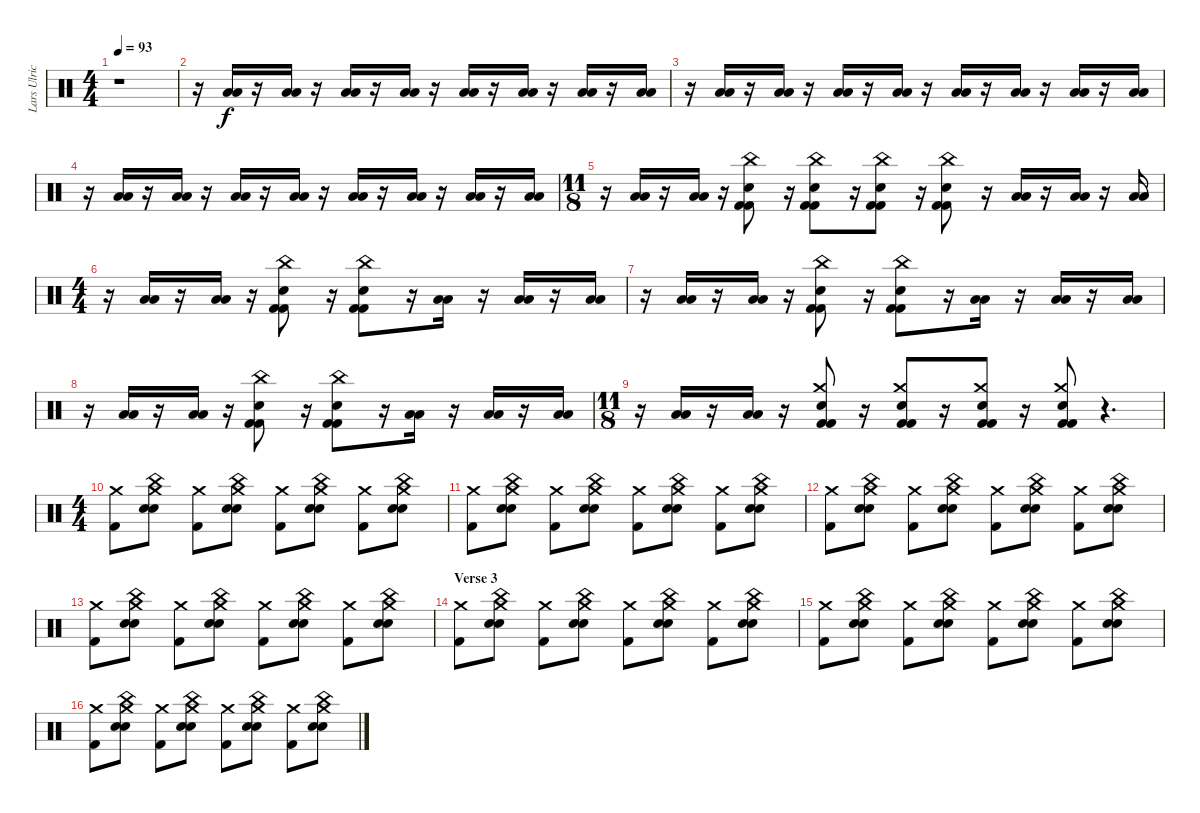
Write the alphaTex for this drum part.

\track ("Lars Ulrich" "Lars Ulric") {instrument percussion}
\staff {score}
\articulation defaults
\ts (4 4)
\tempo 93
\clef neutral
\ks c
r.1{dy f} |
r.16 ("Low Tom (hit)" "Low Floor Tom (hit)").16 r.16 ("Low Tom (hit)" "Low Floor Tom (hit)").16 r.16 ("Low Tom (hit)" "Low Floor Tom (hit)").16 r.16 ("Low Tom (hit)" "Low Floor Tom (hit)").16 r.16 ("Low Tom (hit)" "Low Floor Tom (hit)").16 r.16 ("Low Tom (hit)" "Low Floor Tom (hit)").16 r.16 ("Low Tom (hit)" "Low Floor Tom (hit)").16 r.16 ("Low Tom (hit)" "Low Floor Tom (hit)").16 |
r.16 ("Low Tom (hit)" "Low Floor Tom (hit)").16 r.16 ("Low Tom (hit)" "Low Floor Tom (hit)").16 r.16 ("Low Tom (hit)" "Low Floor Tom (hit)").16 r.16 ("Low Tom (hit)" "Low Floor Tom (hit)").16 r.16 ("Low Tom (hit)" "Low Floor Tom (hit)").16 r.16 ("Low Tom (hit)" "Low Floor Tom (hit)").16 r.16 ("Low Tom (hit)" "Low Floor Tom (hit)").16 r.16 ("Low Tom (hit)" "Low Floor Tom (hit)").16 |
r.16 ("Low Tom (hit)" "Low Floor Tom (hit)").16 r.16 ("Low Tom (hit)" "Low Floor Tom (hit)").16 r.16 ("Low Tom (hit)" "Low Floor Tom (hit)").16 r.16 ("Low Tom (hit)" "Low Floor Tom (hit)").16 r.16 ("Low Tom (hit)" "Low Floor Tom (hit)").16 r.16 ("Low Tom (hit)" "Low Floor Tom (hit)").16 r.16 ("Low Tom (hit)" "Low Floor Tom (hit)").16 r.16 ("Low Tom (hit)" "Low Floor Tom (hit)").16 |
\ts (11 8)
r.16 ("Low Tom (hit)" "Low Floor Tom (hit)").16 r.16 ("Low Tom (hit)" "Low Floor Tom (hit)").16 r.16 ("China (hit)" "Kick (hit) 2" "Kick (hit) 2" "Electric Snare (hit)").8 r.16 ("China (hit)" "Kick (hit) 2" "Kick (hit) 2" "Electric Snare (hit)").8 r.16 ("China (hit)" "Kick (hit) 2" "Kick (hit) 2" "Electric Snare (hit)").8 r.16 ("China (hit)" "Kick (hit) 2" "Kick (hit) 2" "Electric Snare (hit)").8 r.16 ("Low Tom (hit)" "Low Floor Tom (hit)").16 r.16 ("Low Tom (hit)" "Low Floor Tom (hit)").16 r.16 ("Low Tom (hit)" "Low Floor Tom (hit)").16 |
\ts (4 4)
r.16 ("Low Tom (hit)" "Low Floor Tom (hit)").16 r.16 ("Low Tom (hit)" "Low Floor Tom (hit)").16 r.16 ("China (hit)" "Kick (hit) 2" "Kick (hit) 2" "Electric Snare (hit)").8 r.16 ("China (hit)" "Kick (hit) 2" "Kick (hit) 2" "Electric Snare (hit)").8 r.16 ("Low Tom (hit)" "Low Floor Tom (hit)").16 r.16 ("Low Tom (hit)" "Low Floor Tom (hit)").16 r.16 ("Low Tom (hit)" "Low Floor Tom (hit)").16 |
r.16 ("Low Tom (hit)" "Low Floor Tom (hit)").16 r.16 ("Low Tom (hit)" "Low Floor Tom (hit)").16 r.16 ("China (hit)" "Kick (hit) 2" "Kick (hit) 2" "Electric Snare (hit)").8 r.16 ("China (hit)" "Kick (hit) 2" "Kick (hit) 2" "Electric Snare (hit)").8 r.16 ("Low Tom (hit)" "Low Floor Tom (hit)").16 r.16 ("Low Tom (hit)" "Low Floor Tom (hit)").16 r.16 ("Low Tom (hit)" "Low Floor Tom (hit)").16 |
r.16 ("Low Tom (hit)" "Low Floor Tom (hit)").16 r.16 ("Low Tom (hit)" "Low Floor Tom (hit)").16 r.16 ("China (hit)" "Kick (hit) 2" "Kick (hit) 2" "Electric Snare (hit)").8 r.16 ("China (hit)" "Kick (hit) 2" "Kick (hit) 2" "Electric Snare (hit)").8 r.16 ("Low Tom (hit)" "Low Floor Tom (hit)").16 r.16 ("Low Tom (hit)" "Low Floor Tom (hit)").16 r.16 ("Low Tom (hit)" "Low Floor Tom (hit)").16 |
\ts (11 8)
r.16 ("Low Tom (hit)" "Low Floor Tom (hit)").16 r.16 ("Low Tom (hit)" "Low Floor Tom (hit)").16 r.16 ("Crash medium (hit)" "Kick (hit) 2" "Kick (hit) 2" "Snare (hit) 2").8 r.16 ("Crash medium (hit)" "Kick (hit) 2" "Kick (hit) 2" "Snare (hit) 2").8 r.16 ("Crash medium (hit)" "Kick (hit) 2" "Kick (hit) 2" "Snare (hit) 2").8 r.16 ("Crash medium (hit)" "Kick (hit) 2" "Kick (hit) 2" "Snare (hit) 2").8 r.4{d} |
\ts (4 4)
("Crash medium (hit)" "Kick (hit) 2").8 ("Crash medium (hit)" "China (hit)" "Electric Snare (hit)" "Snare (hit) 2").8 ("Crash medium (hit)" "Kick (hit) 2").8 ("Crash medium (hit)" "China (hit)" "Electric Snare (hit)" "Snare (hit) 2").8 ("Crash medium (hit)" "Kick (hit) 2").8 ("Crash medium (hit)" "China (hit)" "Electric Snare (hit)" "Snare (hit) 2").8 ("Crash medium (hit)" "Kick (hit) 2").8 ("Crash medium (hit)" "China (hit)" "Electric Snare (hit)" "Snare (hit) 2").8 |
("Crash medium (hit)" "Kick (hit) 2").8 ("Crash medium (hit)" "China (hit)" "Electric Snare (hit)" "Snare (hit) 2").8 ("Crash medium (hit)" "Kick (hit) 2").8 ("Crash medium (hit)" "China (hit)" "Electric Snare (hit)" "Snare (hit) 2").8 ("Crash medium (hit)" "Kick (hit) 2").8 ("Crash medium (hit)" "China (hit)" "Electric Snare (hit)" "Snare (hit) 2").8 ("Crash medium (hit)" "Kick (hit) 2").8 ("Crash medium (hit)" "China (hit)" "Electric Snare (hit)" "Snare (hit) 2").8 |
("Crash medium (hit)" "Kick (hit) 2").8 ("Crash medium (hit)" "China (hit)" "Electric Snare (hit)" "Snare (hit) 2").8 ("Crash medium (hit)" "Kick (hit) 2").8 ("Crash medium (hit)" "China (hit)" "Electric Snare (hit)" "Snare (hit) 2").8 ("Crash medium (hit)" "Kick (hit) 2").8 ("Crash medium (hit)" "China (hit)" "Electric Snare (hit)" "Snare (hit) 2").8 ("Crash medium (hit)" "Kick (hit) 2").8 ("Crash medium (hit)" "China (hit)" "Electric Snare (hit)" "Snare (hit) 2").8 |
("Crash medium (hit)" "Kick (hit) 2").8 ("Crash medium (hit)" "China (hit)" "Electric Snare (hit)" "Snare (hit) 2").8 ("Crash medium (hit)" "Kick (hit) 2").8 ("Crash medium (hit)" "China (hit)" "Electric Snare (hit)" "Snare (hit) 2").8 ("Crash medium (hit)" "Kick (hit) 2").8 ("Crash medium (hit)" "China (hit)" "Electric Snare (hit)" "Snare (hit) 2").8 ("Crash medium (hit)" "Kick (hit) 2").8 ("Crash medium (hit)" "China (hit)" "Electric Snare (hit)" "Snare (hit) 2").8 |
\section ("" "Verse 3")
("Crash medium (hit)" "Kick (hit) 2").8 ("Crash medium (hit)" "China (hit)" "Electric Snare (hit)" "Snare (hit) 2").8 ("Crash medium (hit)" "Kick (hit) 2").8 ("Crash medium (hit)" "China (hit)" "Electric Snare (hit)" "Snare (hit) 2").8 ("Crash medium (hit)" "Kick (hit) 2").8 ("Crash medium (hit)" "China (hit)" "Electric Snare (hit)" "Snare (hit) 2").8 ("Crash medium (hit)" "Kick (hit) 2").8 ("Crash medium (hit)" "China (hit)" "Electric Snare (hit)" "Snare (hit) 2").8 |
("Crash medium (hit)" "Kick (hit) 2").8 ("Crash medium (hit)" "China (hit)" "Electric Snare (hit)" "Snare (hit) 2").8 ("Crash medium (hit)" "Kick (hit) 2").8 ("Crash medium (hit)" "China (hit)" "Electric Snare (hit)" "Snare (hit) 2").8 ("Crash medium (hit)" "Kick (hit) 2").8 ("Crash medium (hit)" "China (hit)" "Electric Snare (hit)" "Snare (hit) 2").8 ("Crash medium (hit)" "Kick (hit) 2").8 ("Crash medium (hit)" "China (hit)" "Electric Snare (hit)" "Snare (hit) 2").8 |
("Crash medium (hit)" "Kick (hit) 2").8 ("Crash medium (hit)" "China (hit)" "Electric Snare (hit)" "Snare (hit) 2").8 ("Crash medium (hit)" "Kick (hit) 2").8 ("Crash medium (hit)" "China (hit)" "Electric Snare (hit)" "Snare (hit) 2").8 ("Crash medium (hit)" "Kick (hit) 2").8 ("Crash medium (hit)" "China (hit)" "Electric Snare (hit)" "Snare (hit) 2").8 ("Crash medium (hit)" "Kick (hit) 2").8 ("Crash medium (hit)" "China (hit)" "Electric Snare (hit)" "Snare (hit) 2").8
